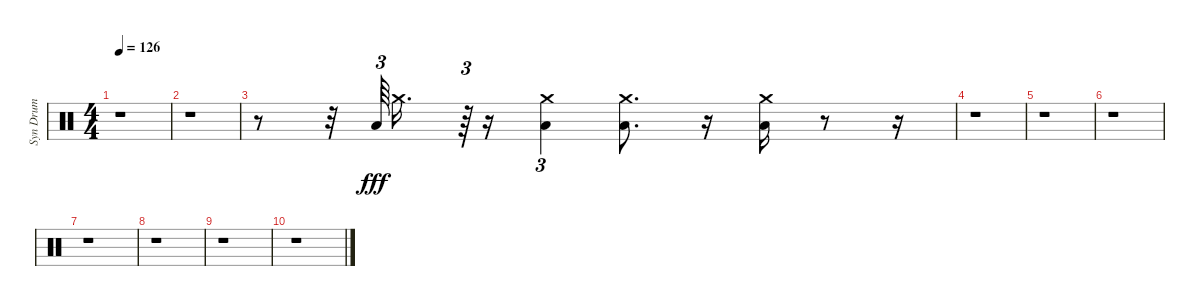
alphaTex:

\track ("Syn Drum" "Syn Drum") {instrument percussion}
\staff {score}
\articulation defaults
\ts (4 4)
\tempo 126
\clef neutral
\ks c
r.1{dy fff} |
r.1 |
r.8 r.32 "Low Tom (hit)".64{tu (3 2)} "Crash medium (hit)".16{d} r.64{tu (3 2)} r.16 ("Crash medium (hit)" "Low Tom (hit)").4{tu (3 2)} ("Crash medium (hit)" "Low Tom (hit)").8{d} r.16 ("Low Tom (hit)" "Crash medium (hit)").16 r.8 r.16 |
r.1 |
r.1 |
r.1 |
r.1 |
r.1 |
r.1 |
r.1
